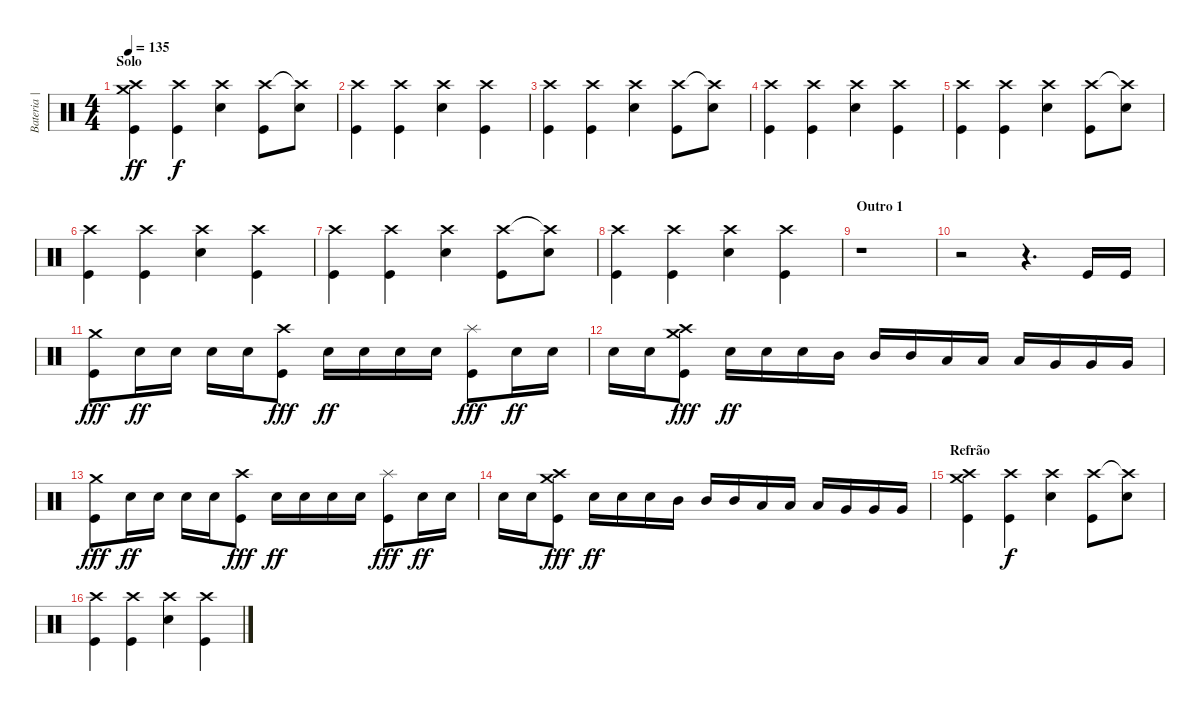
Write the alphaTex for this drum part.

\track ("Bateria | Bernardo" "Bateria | ") {instrument percussion}
\staff {score}
\articulation defaults
\ts (4 4)
\section ("" "Solo")
\tempo 135
\clef neutral
\ks c
("Crash medium (hit)" "Crash high (hit)" "Kick (hit)").4{dy ff} ("Crash high (hit)" "Kick (hit)").4{dy f} ("Crash high (hit)" "Snare (hit) 2").4 ("Crash high (hit)" "Kick (hit)").8 ("Crash high (hit)"{t} "Snare (hit) 2").8 |
("Crash high (hit)" "Kick (hit)").4 ("Crash high (hit)" "Kick (hit)").4 ("Crash high (hit)" "Snare (hit) 2").4 ("Crash high (hit)" "Kick (hit)").4 |
("Crash high (hit)" "Kick (hit)").4 ("Crash high (hit)" "Kick (hit)").4 ("Crash high (hit)" "Snare (hit) 2").4 ("Crash high (hit)" "Kick (hit)").8 ("Crash high (hit)"{t} "Snare (hit) 2").8 |
("Crash high (hit)" "Kick (hit)").4 ("Crash high (hit)" "Kick (hit)").4 ("Crash high (hit)" "Snare (hit) 2").4 ("Crash high (hit)" "Kick (hit)").4 |
("Crash high (hit)" "Kick (hit)").4 ("Crash high (hit)" "Kick (hit)").4 ("Crash high (hit)" "Snare (hit) 2").4 ("Crash high (hit)" "Kick (hit)").8 ("Crash high (hit)"{t} "Snare (hit) 2").8 |
("Crash high (hit)" "Kick (hit)").4 ("Crash high (hit)" "Kick (hit)").4 ("Crash high (hit)" "Snare (hit) 2").4 ("Crash high (hit)" "Kick (hit)").4 |
("Crash high (hit)" "Kick (hit)").4 ("Crash high (hit)" "Kick (hit)").4 ("Crash high (hit)" "Snare (hit) 2").4 ("Crash high (hit)" "Kick (hit)").8 ("Crash high (hit)"{t} "Snare (hit) 2").8 |
("Crash high (hit)" "Kick (hit)").4 ("Crash high (hit)" "Kick (hit)").4 ("Crash high (hit)" "Snare (hit) 2").4 ("Crash high (hit)" "Kick (hit)").4 |
\section ("" "Outro 1")
r.1 |
r.2 r.4{d} "Kick (hit)".16 "Kick (hit)".16 |
("Crash medium (hit)" "Kick (hit)").8{dy fff} "Snare (hit) 2".16{dy ff} "Snare (hit) 2".16 "Snare (hit) 2".16 "Snare (hit) 2".16 ("Crash high (hit)" "Kick (hit)").8{dy fff} "Snare (hit) 2".16{dy ff} "Snare (hit) 2".16 "Snare (hit) 2".16 "Snare (hit) 2".16 ("Splash (hit)" "Kick (hit)").8{dy fff} "Snare (hit) 2".16{dy ff} "Snare (hit) 2".16 |
"Snare (hit) 2".16 "Snare (hit) 2".16 ("Crash medium (hit)" "Crash high (hit)" "Kick (hit)").8{dy fff} "Snare (hit) 2".16{dy ff} "Snare (hit) 2".16 "Snare (hit) 2".16 "Mid Tom (hit)".16 "Mid Tom (hit)".16 "Mid Tom (hit)".16 "Low Tom (hit)".16 "Low Tom (hit)".16 "Low Tom (hit)".16 "Very Low Tom (hit)".16 "Very Low Tom (hit)".16 "Very Low Tom (hit)".16 |
("Crash medium (hit)" "Kick (hit)").8{dy fff} "Snare (hit) 2".16{dy ff} "Snare (hit) 2".16 "Snare (hit) 2".16 "Snare (hit) 2".16 ("Crash high (hit)" "Kick (hit)").8{dy fff} "Snare (hit) 2".16{dy ff} "Snare (hit) 2".16 "Snare (hit) 2".16 "Snare (hit) 2".16 ("Splash (hit)" "Kick (hit)").8{dy fff} "Snare (hit) 2".16{dy ff} "Snare (hit) 2".16 |
"Snare (hit) 2".16 "Snare (hit) 2".16 ("Crash medium (hit)" "Crash high (hit)" "Kick (hit)").8{dy fff} "Snare (hit) 2".16{dy ff} "Snare (hit) 2".16 "Snare (hit) 2".16 "Mid Tom (hit)".16 "Mid Tom (hit)".16 "Mid Tom (hit)".16 "Low Tom (hit)".16 "Low Tom (hit)".16 "Low Tom (hit)".16 "Very Low Tom (hit)".16 "Very Low Tom (hit)".16 "Very Low Tom (hit)".16 |
\section ("" "Refrão")
("Crash medium (hit)" "Crash high (hit)" "Kick (hit)").4 ("Crash high (hit)" "Kick (hit)").4{dy f} ("Crash high (hit)" "Snare (hit) 2").4 ("Crash high (hit)" "Kick (hit)").8 ("Crash high (hit)"{t} "Snare (hit) 2").8 |
("Crash high (hit)" "Kick (hit)").4 ("Crash high (hit)" "Kick (hit)").4 ("Crash high (hit)" "Snare (hit) 2").4 ("Crash high (hit)" "Kick (hit)").4
